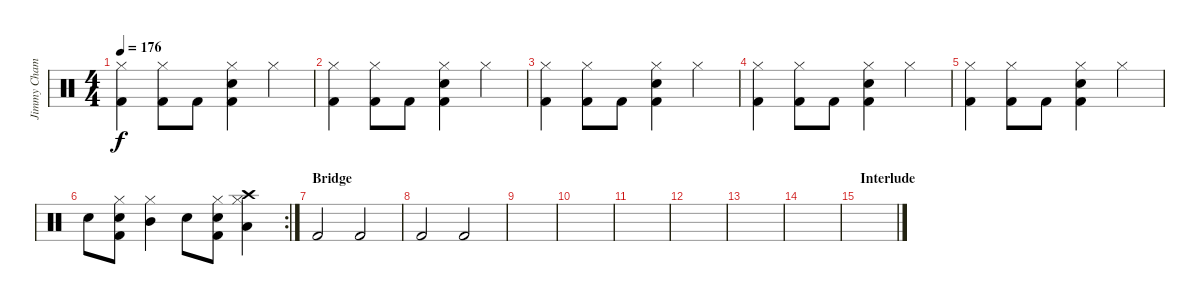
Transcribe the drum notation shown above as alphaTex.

\track ("Jimmy Chamberlin" "Jimmy Cham") {instrument percussion}
\staff {score}
\articulation defaults
\ts (4 4)
\tempo 176
\clef neutral
\ks c
("Hi-Hat (closed)" "Kick (hit) 2").4{dy f} ("Hi-Hat (closed)" "Kick (hit) 2").8 "Kick (hit) 2".8 ("Hi-Hat (closed)" "Snare (hit) 2" "Kick (hit) 2").4 "Hi-Hat (closed)".4 |
("Hi-Hat (closed)" "Kick (hit) 2").4 ("Hi-Hat (closed)" "Kick (hit) 2").8 "Kick (hit) 2".8 ("Hi-Hat (closed)" "Snare (hit) 2" "Kick (hit) 2").4 "Hi-Hat (closed)".4 |
("Hi-Hat (closed)" "Kick (hit) 2").4 ("Hi-Hat (closed)" "Kick (hit) 2").8 "Kick (hit) 2".8 ("Hi-Hat (closed)" "Snare (hit) 2" "Kick (hit) 2").4 "Hi-Hat (closed)".4 |
("Hi-Hat (closed)" "Kick (hit) 2").4 ("Hi-Hat (closed)" "Kick (hit) 2").8 "Kick (hit) 2".8 ("Hi-Hat (closed)" "Snare (hit) 2" "Kick (hit) 2").4 "Hi-Hat (closed)".4 |
("Hi-Hat (closed)" "Kick (hit) 2").4 ("Hi-Hat (closed)" "Kick (hit) 2").8 "Kick (hit) 2".8 ("Hi-Hat (closed)" "Snare (hit) 2" "Kick (hit) 2").4 "Hi-Hat (closed)".4 |
\rc 2 "Snare (hit) 2".8
("Hi-Hat (closed)" "Snare (hit) 2" "Kick (hit) 2").8 ("Hi-Hat (closed)" "Mid Tom (hit)").4 "Snare (hit) 2".8 ("Hi-Hat (closed)" "Snare (hit) 2" "Kick (hit) 2").8 ("Hi-Hat (closed)" "Crash high (hit)" "Low Tom (hit)").4 |
\section ("" "Bridge")
"Kick (hit) 2".2 "Kick (hit) 2".2 |
"Kick (hit) 2".2 "Kick (hit) 2".2 |
|
|
|
|
|
|
\section ("" "Interlude")
